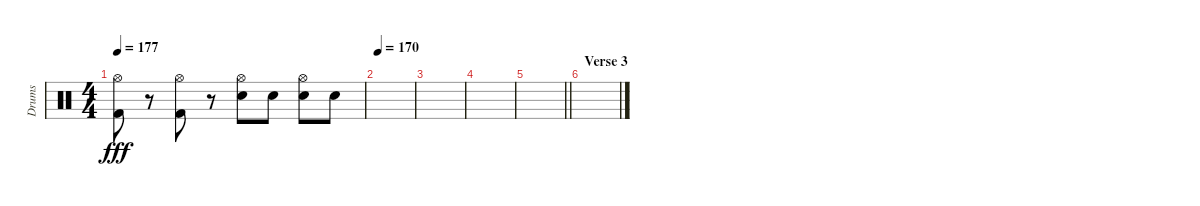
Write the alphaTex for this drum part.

\track ("Drums" "Drums") {instrument percussion}
\staff {score}
\articulation defaults
\ts (4 4)
\tempo 177
\clef neutral
\ks c
("Hi-Hat (open)" "Kick (hit) 2").8{dy fff} r.8 ("Hi-Hat (open)" "Kick (hit) 2").8 r.8 ("Hi-Hat (open)" "Snare (hit) 2").8 "Snare (hit) 2".8 ("Hi-Hat (open)" "Snare (hit) 2").8 "Snare (hit) 2".8 |
\tempo 170
|
|
|
\barLineRight lightlight
|
\section ("" "Verse 3")
